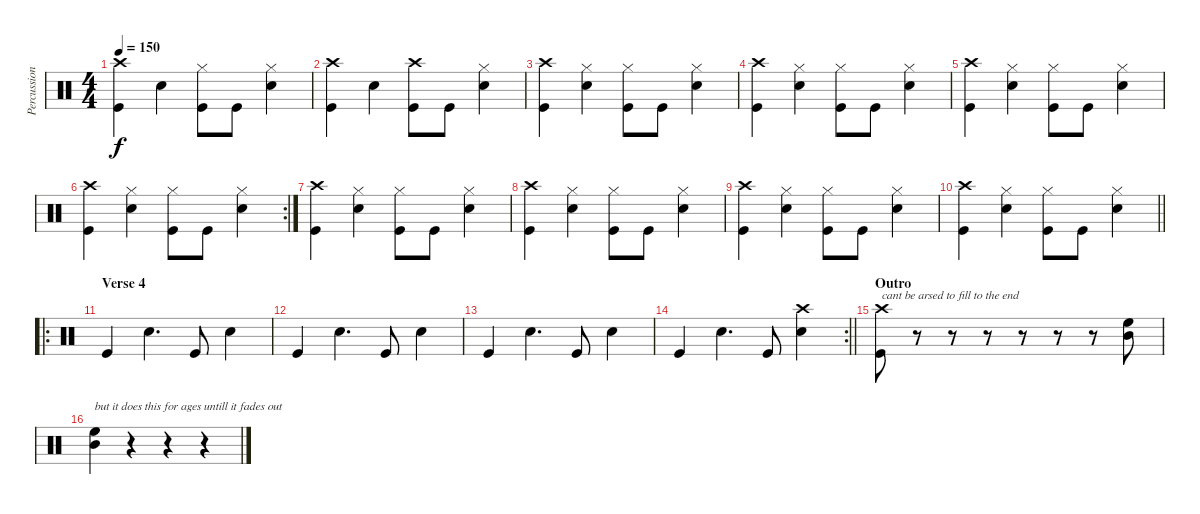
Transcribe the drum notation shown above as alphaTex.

\track ("Percussion" "Percussion") {instrument percussion}
\staff {score}
\articulation defaults
\ts (4 4)
\tempo 150
\clef neutral
\ks c
("Kick (hit)" "Crash high (hit)").4{dy f} "Snare (hit) 2".4 ("Kick (hit)" "Hi-Hat (closed)").8 "Kick (hit)".8 ("Snare (hit) 2" "Hi-Hat (closed)").4 |
("Kick (hit)" "Crash high (hit)").4 "Snare (hit) 2".4 ("Kick (hit)" "Crash high (hit)").8 "Kick (hit)".8 ("Snare (hit) 2" "Hi-Hat (closed)").4 |
("Kick (hit)" "Crash high (hit)").4 ("Snare (hit) 2" "Hi-Hat (closed)").4 ("Kick (hit)" "Hi-Hat (closed)").8 "Kick (hit)".8 ("Snare (hit) 2" "Hi-Hat (closed)").4 |
("Kick (hit)" "Crash high (hit)").4 ("Snare (hit) 2" "Hi-Hat (closed)").4 ("Kick (hit)" "Hi-Hat (closed)").8 "Kick (hit)".8 ("Snare (hit) 2" "Hi-Hat (closed)").4 |
("Kick (hit)" "Crash high (hit)").4 ("Snare (hit) 2" "Hi-Hat (closed)").4 ("Kick (hit)" "Hi-Hat (closed)").8 "Kick (hit)".8 ("Snare (hit) 2" "Hi-Hat (closed)").4 |
\rc 2
("Kick (hit)" "Crash high (hit)").4 ("Snare (hit) 2" "Hi-Hat (closed)").4 ("Kick (hit)" "Hi-Hat (closed)").8 "Kick (hit)".8 ("Snare (hit) 2" "Hi-Hat (closed)").4 |
("Kick (hit)" "Crash high (hit)").4 ("Snare (hit) 2" "Hi-Hat (closed)").4 ("Kick (hit)" "Hi-Hat (closed)").8 "Kick (hit)".8 ("Snare (hit) 2" "Hi-Hat (closed)").4 |
("Kick (hit)" "Crash high (hit)").4 ("Snare (hit) 2" "Hi-Hat (closed)").4 ("Kick (hit)" "Hi-Hat (closed)").8 "Kick (hit)".8 ("Snare (hit) 2" "Hi-Hat (closed)").4 |
("Kick (hit)" "Crash high (hit)").4 ("Snare (hit) 2" "Hi-Hat (closed)").4 ("Kick (hit)" "Hi-Hat (closed)").8 "Kick (hit)".8 ("Snare (hit) 2" "Hi-Hat (closed)").4 |
\barLineRight lightlight
("Kick (hit)" "Crash high (hit)").4 ("Snare (hit) 2" "Hi-Hat (closed)").4 ("Kick (hit)" "Hi-Hat (closed)").8 "Kick (hit)".8 ("Snare (hit) 2" "Hi-Hat (closed)").4 |
\ro
\section ("" "Verse 4")
"Kick (hit)".4 "Snare (hit) 2".4{d} "Kick (hit)".8 "Snare (hit) 2".4 |
"Kick (hit)".4 "Snare (hit) 2".4{d} "Kick (hit)".8 "Snare (hit) 2".4 |
"Kick (hit)".4 "Snare (hit) 2".4{d} "Kick (hit)".8 "Snare (hit) 2".4 |
\rc 2
\barLineRight lightlight "Kick (hit)".4 "Snare (hit) 2".4{d} "Kick (hit)".8
("Crash high (hit)" "Snare (hit) 2").4 |
\section ("" "Outro")
("Kick (hit)" "Crash high (hit)").8{txt "cant be arsed to fill to the end"} r.8 r.8 r.8 r.8 r.8 r.8 ("Mid Tom (hit)" "High Floor Tom (hit)").8 |
("Mid Tom (hit)" "High Floor Tom (hit)").4{txt "but it does this for ages untill it fades out"} r.4 r.4 r.4
